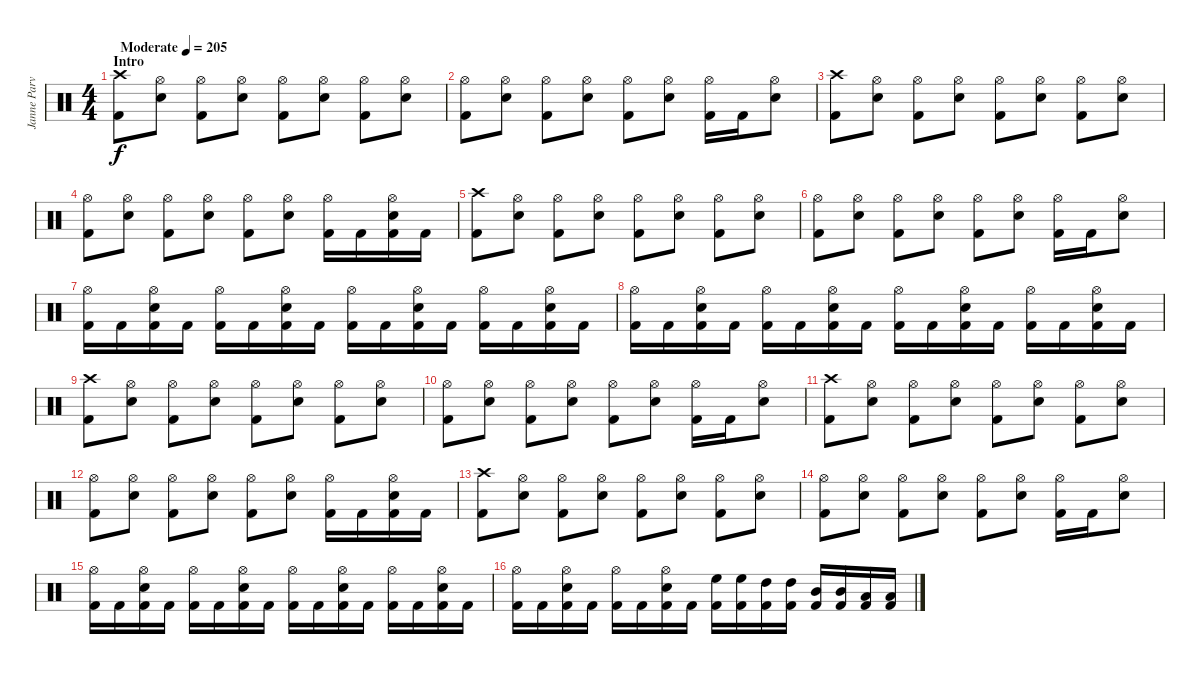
\track ("Janne Parviainen" "Janne Parv") {instrument percussion}
\staff {score}
\articulation defaults
\ts (4 4)
\section ("" "Intro")
\tempo (205 "Moderate")
\clef neutral
\ks c
("Crash high (hit)" "Kick (hit) 2").8{dy f} ("Hi-Hat (open)" "Electric Snare (hit)").8 ("Hi-Hat (open)" "Kick (hit) 2").8 ("Hi-Hat (open)" "Electric Snare (hit)").8 ("Hi-Hat (open)" "Kick (hit) 2").8 ("Hi-Hat (open)" "Electric Snare (hit)").8 ("Hi-Hat (open)" "Kick (hit) 2").8 ("Hi-Hat (open)" "Electric Snare (hit)").8 |
("Hi-Hat (open)" "Kick (hit) 2").8 ("Hi-Hat (open)" "Electric Snare (hit)").8 ("Hi-Hat (open)" "Kick (hit) 2").8 ("Hi-Hat (open)" "Electric Snare (hit)").8 ("Hi-Hat (open)" "Kick (hit) 2").8 ("Hi-Hat (open)" "Electric Snare (hit)").8 ("Hi-Hat (open)" "Kick (hit) 2").16 "Kick (hit) 2".16 ("Hi-Hat (open)" "Electric Snare (hit)").8 |
("Crash high (hit)" "Kick (hit) 2").8 ("Hi-Hat (open)" "Electric Snare (hit)").8 ("Hi-Hat (open)" "Kick (hit) 2").8 ("Hi-Hat (open)" "Electric Snare (hit)").8 ("Hi-Hat (open)" "Kick (hit) 2").8 ("Hi-Hat (open)" "Electric Snare (hit)").8 ("Hi-Hat (open)" "Kick (hit) 2").8 ("Hi-Hat (open)" "Electric Snare (hit)").8 |
("Hi-Hat (open)" "Kick (hit) 2").8 ("Hi-Hat (open)" "Electric Snare (hit)").8 ("Hi-Hat (open)" "Kick (hit) 2").8 ("Hi-Hat (open)" "Electric Snare (hit)").8 ("Hi-Hat (open)" "Kick (hit) 2").8 ("Hi-Hat (open)" "Electric Snare (hit)").8 ("Hi-Hat (open)" "Kick (hit) 2").16 "Kick (hit) 2".16 ("Hi-Hat (open)" "Electric Snare (hit)" "Kick (hit) 2").16 "Kick (hit) 2".16 |
("Crash high (hit)" "Kick (hit) 2").8 ("Hi-Hat (open)" "Electric Snare (hit)").8 ("Hi-Hat (open)" "Kick (hit) 2").8 ("Hi-Hat (open)" "Electric Snare (hit)").8 ("Hi-Hat (open)" "Kick (hit) 2").8 ("Hi-Hat (open)" "Electric Snare (hit)").8 ("Hi-Hat (open)" "Kick (hit) 2").8 ("Hi-Hat (open)" "Electric Snare (hit)").8 |
("Hi-Hat (open)" "Kick (hit) 2").8 ("Hi-Hat (open)" "Electric Snare (hit)").8 ("Hi-Hat (open)" "Kick (hit) 2").8 ("Hi-Hat (open)" "Electric Snare (hit)").8 ("Hi-Hat (open)" "Kick (hit) 2").8 ("Hi-Hat (open)" "Electric Snare (hit)").8 ("Hi-Hat (open)" "Kick (hit) 2").16 "Kick (hit) 2".16 ("Hi-Hat (open)" "Electric Snare (hit)").8 |
("Hi-Hat (open)" "Kick (hit) 2").16 "Kick (hit) 2".16 ("Hi-Hat (open)" "Snare (hit) 2" "Kick (hit) 2").16 "Kick (hit) 2".16 ("Hi-Hat (open)" "Kick (hit) 2").16 "Kick (hit) 2".16 ("Hi-Hat (open)" "Snare (hit) 2" "Kick (hit) 2").16 "Kick (hit) 2".16 ("Hi-Hat (open)" "Kick (hit) 2").16 "Kick (hit) 2".16 ("Hi-Hat (open)" "Snare (hit) 2" "Kick (hit) 2").16 "Kick (hit) 2".16 ("Hi-Hat (open)" "Kick (hit) 2").16 "Kick (hit) 2".16 ("Hi-Hat (open)" "Snare (hit) 2" "Kick (hit) 2").16 "Kick (hit) 2".16 |
("Hi-Hat (open)" "Kick (hit) 2").16 "Kick (hit) 2".16 ("Hi-Hat (open)" "Snare (hit) 2" "Kick (hit) 2").16 "Kick (hit) 2".16 ("Hi-Hat (open)" "Kick (hit) 2").16 "Kick (hit) 2".16 ("Hi-Hat (open)" "Snare (hit) 2" "Kick (hit) 2").16 "Kick (hit) 2".16 ("Hi-Hat (open)" "Kick (hit) 2").16 "Kick (hit) 2".16 ("Hi-Hat (open)" "Snare (hit) 2" "Kick (hit) 2").16 "Kick (hit) 2".16 ("Hi-Hat (open)" "Kick (hit) 2").16 "Kick (hit) 2".16 ("Hi-Hat (open)" "Snare (hit) 2" "Kick (hit) 2").16 "Kick (hit) 2".16 |
("Crash high (hit)" "Kick (hit) 2").8 ("Hi-Hat (open)" "Electric Snare (hit)").8 ("Hi-Hat (open)" "Kick (hit) 2").8 ("Hi-Hat (open)" "Electric Snare (hit)").8 ("Hi-Hat (open)" "Kick (hit) 2").8 ("Hi-Hat (open)" "Electric Snare (hit)").8 ("Hi-Hat (open)" "Kick (hit) 2").8 ("Hi-Hat (open)" "Electric Snare (hit)").8 |
("Hi-Hat (open)" "Kick (hit) 2").8 ("Hi-Hat (open)" "Electric Snare (hit)").8 ("Hi-Hat (open)" "Kick (hit) 2").8 ("Hi-Hat (open)" "Electric Snare (hit)").8 ("Hi-Hat (open)" "Kick (hit) 2").8 ("Hi-Hat (open)" "Electric Snare (hit)").8 ("Hi-Hat (open)" "Kick (hit) 2").16 "Kick (hit) 2".16 ("Hi-Hat (open)" "Electric Snare (hit)").8 |
("Crash high (hit)" "Kick (hit) 2").8 ("Hi-Hat (open)" "Electric Snare (hit)").8 ("Hi-Hat (open)" "Kick (hit) 2").8 ("Hi-Hat (open)" "Electric Snare (hit)").8 ("Hi-Hat (open)" "Kick (hit) 2").8 ("Hi-Hat (open)" "Electric Snare (hit)").8 ("Hi-Hat (open)" "Kick (hit) 2").8 ("Hi-Hat (open)" "Electric Snare (hit)").8 |
("Hi-Hat (open)" "Kick (hit) 2").8 ("Hi-Hat (open)" "Electric Snare (hit)").8 ("Hi-Hat (open)" "Kick (hit) 2").8 ("Hi-Hat (open)" "Electric Snare (hit)").8 ("Hi-Hat (open)" "Kick (hit) 2").8 ("Hi-Hat (open)" "Electric Snare (hit)").8 ("Hi-Hat (open)" "Kick (hit) 2").16 "Kick (hit) 2".16 ("Hi-Hat (open)" "Electric Snare (hit)" "Kick (hit) 2").16 "Kick (hit) 2".16 |
("Crash high (hit)" "Kick (hit) 2").8 ("Hi-Hat (open)" "Electric Snare (hit)").8 ("Hi-Hat (open)" "Kick (hit) 2").8 ("Hi-Hat (open)" "Electric Snare (hit)").8 ("Hi-Hat (open)" "Kick (hit) 2").8 ("Hi-Hat (open)" "Electric Snare (hit)").8 ("Hi-Hat (open)" "Kick (hit) 2").8 ("Hi-Hat (open)" "Electric Snare (hit)").8 |
("Hi-Hat (open)" "Kick (hit) 2").8 ("Hi-Hat (open)" "Electric Snare (hit)").8 ("Hi-Hat (open)" "Kick (hit) 2").8 ("Hi-Hat (open)" "Electric Snare (hit)").8 ("Hi-Hat (open)" "Kick (hit) 2").8 ("Hi-Hat (open)" "Electric Snare (hit)").8 ("Hi-Hat (open)" "Kick (hit) 2").16 "Kick (hit) 2".16 ("Hi-Hat (open)" "Electric Snare (hit)").8 |
("Hi-Hat (open)" "Kick (hit) 2").16 "Kick (hit) 2".16 ("Hi-Hat (open)" "Snare (hit) 2" "Kick (hit) 2").16 "Kick (hit) 2".16 ("Hi-Hat (open)" "Kick (hit) 2").16 "Kick (hit) 2".16 ("Hi-Hat (open)" "Snare (hit) 2" "Kick (hit) 2").16 "Kick (hit) 2".16 ("Hi-Hat (open)" "Kick (hit) 2").16 "Kick (hit) 2".16 ("Hi-Hat (open)" "Snare (hit) 2" "Kick (hit) 2").16 "Kick (hit) 2".16 ("Hi-Hat (open)" "Kick (hit) 2").16 "Kick (hit) 2".16 ("Hi-Hat (open)" "Snare (hit) 2" "Kick (hit) 2").16 "Kick (hit) 2".16 |
("Hi-Hat (open)" "Kick (hit) 2").16 "Kick (hit) 2".16 ("Hi-Hat (open)" "Snare (hit) 2" "Kick (hit) 2").16 "Kick (hit) 2".16 ("Hi-Hat (open)" "Kick (hit) 2").16 "Kick (hit) 2".16 ("Hi-Hat (open)" "Snare (hit) 2" "Kick (hit) 2").16 "Kick (hit) 2".16 ("High Floor Tom (hit)" "Kick (hit) 2").16 ("High Floor Tom (hit)" "Kick (hit) 2").16 ("High Tom (hit)" "Kick (hit) 2").16 ("High Tom (hit)" "Kick (hit) 2").16 ("Mid Tom (hit)" "Kick (hit) 2").16 ("Mid Tom (hit)" "Kick (hit) 2").16 ("Low Tom (hit)" "Kick (hit) 2").16 ("Low Tom (hit)" "Kick (hit) 2").16
